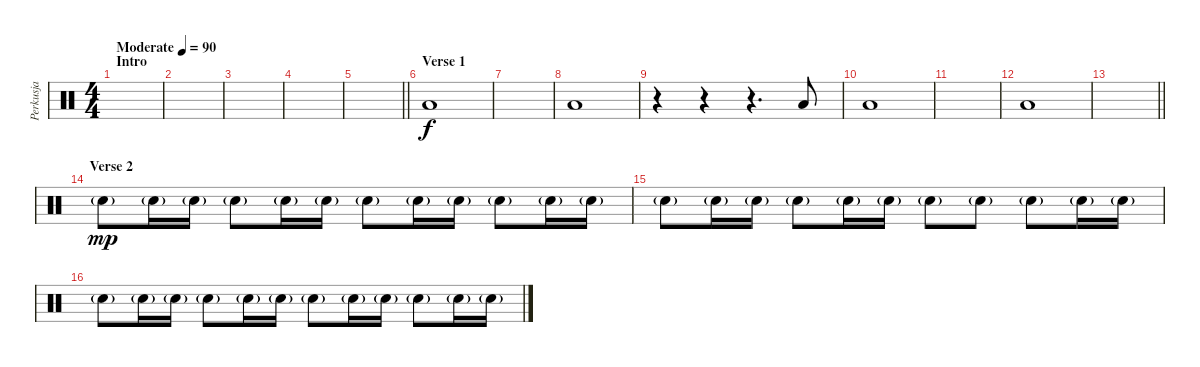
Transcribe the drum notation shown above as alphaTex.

\track ("Perkusja" "Perkusja") {instrument percussion}
\staff {score}
\articulation defaults
\ts (4 4)
\section ("" "Intro")
\tempo (90 "Moderate")
\clef neutral
\ks c
|
|
|
|
\barLineRight lightlight
|
\section ("" "Verse 1")
"Low Floor Tom (hit)".1 |
|
"Low Floor Tom (hit)".1 |
r.4 r.4 r.4{d} "Low Floor Tom (hit)".8 |
"Low Floor Tom (hit)".1 |
|
"Low Floor Tom (hit)".1 |
\barLineRight lightlight
|
\section ("" "Verse 2")
"Electric Snare (hit)"{g}.8{dy mp} "Electric Snare (hit)"{g}.16 "Electric Snare (hit)"{g}.16 "Electric Snare (hit)"{g}.8 "Electric Snare (hit)"{g}.16 "Electric Snare (hit)"{g}.16 "Electric Snare (hit)"{g}.8 "Electric Snare (hit)"{g}.16 "Electric Snare (hit)"{g}.16 "Electric Snare (hit)"{g}.8 "Electric Snare (hit)"{g}.16 "Electric Snare (hit)"{g}.16 |
"Electric Snare (hit)"{g}.8 "Electric Snare (hit)"{g}.16 "Electric Snare (hit)"{g}.16 "Electric Snare (hit)"{g}.8 "Electric Snare (hit)"{g}.16 "Electric Snare (hit)"{g}.16 "Electric Snare (hit)"{g}.8 "Electric Snare (hit)"{g}.8 "Electric Snare (hit)"{g}.8 "Electric Snare (hit)"{g}.16 "Electric Snare (hit)"{g}.16 |
"Electric Snare (hit)"{g}.8 "Electric Snare (hit)"{g}.16 "Electric Snare (hit)"{g}.16 "Electric Snare (hit)"{g}.8 "Electric Snare (hit)"{g}.16 "Electric Snare (hit)"{g}.16 "Electric Snare (hit)"{g}.8 "Electric Snare (hit)"{g}.16 "Electric Snare (hit)"{g}.16 "Electric Snare (hit)"{g}.8 "Electric Snare (hit)"{g}.16 "Electric Snare (hit)"{g}.16
